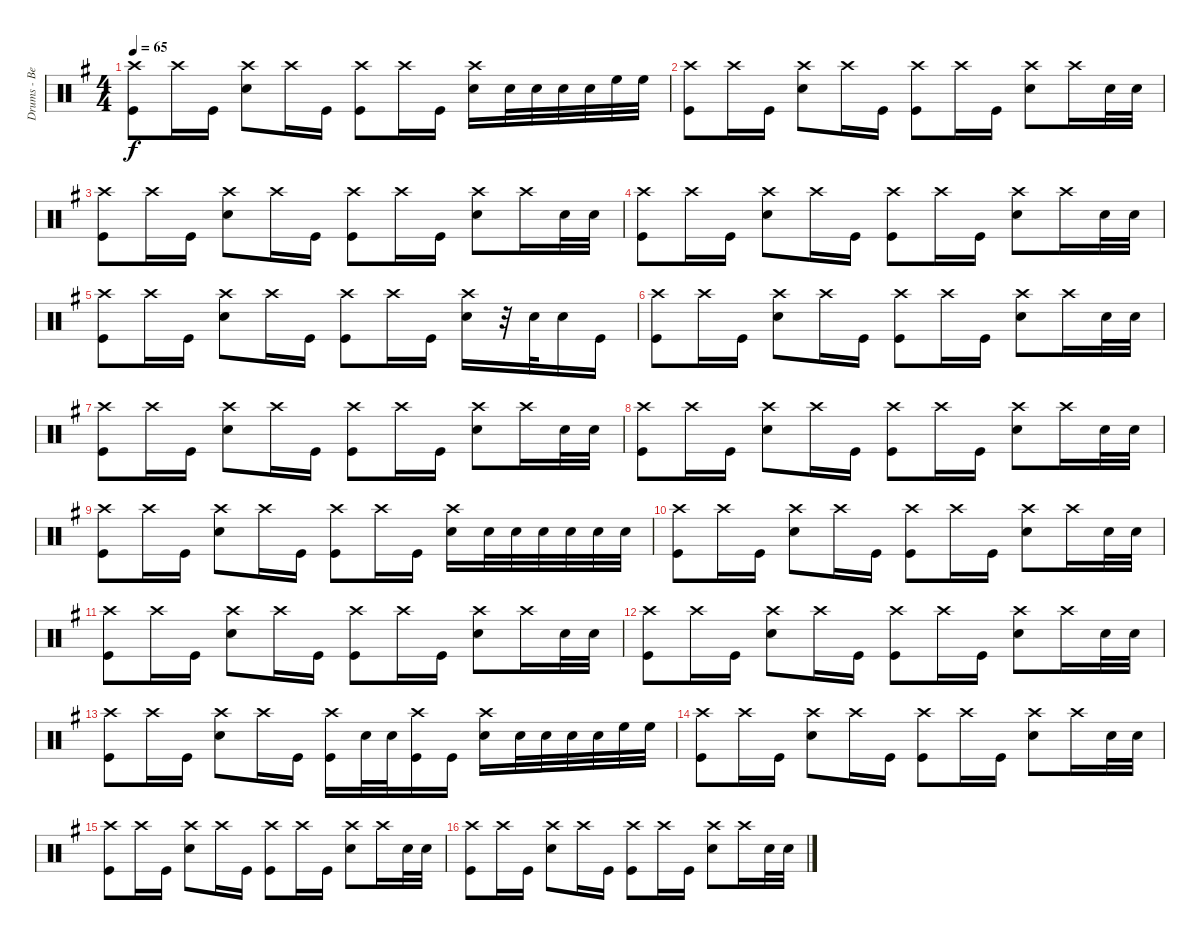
\track ("Drums - Ben Johnston" "Drums - Be") {instrument percussion}
\staff {score}
\articulation defaults
\ts (4 4)
\tempo 65
\clef neutral
\ks g
("Crash high (hit)" "Kick (hit)").8{dy f} "Crash high (hit)".16 "Kick (hit)".16 ("Crash high (hit)" "Snare (hit) 2").8 "Crash high (hit)".16 "Kick (hit)".16 ("Crash high (hit)" "Kick (hit)").8 "Crash high (hit)".16 "Kick (hit)".16 ("Crash high (hit)" "Snare (hit) 2").16 "Snare (hit) 2".32 "Snare (hit) 2".32 "Snare (hit) 2".32 "Snare (hit) 2".32 "High Floor Tom (hit)".32 "High Floor Tom (hit)".32 |
("Crash high (hit)" "Kick (hit)").8 "Crash high (hit)".16 "Kick (hit)".16 ("Crash high (hit)" "Snare (hit) 2").8 "Crash high (hit)".16 "Kick (hit)".16 ("Crash high (hit)" "Kick (hit)").8 "Crash high (hit)".16 "Kick (hit)".16 ("Crash high (hit)" "Snare (hit) 2").8 "Crash high (hit)".16 "Snare (hit) 2".32 "Snare (hit) 2".32 |
("Crash high (hit)" "Kick (hit)").8 "Crash high (hit)".16 "Kick (hit)".16 ("Crash high (hit)" "Snare (hit) 2").8 "Crash high (hit)".16 "Kick (hit)".16 ("Crash high (hit)" "Kick (hit)").8 "Crash high (hit)".16 "Kick (hit)".16 ("Crash high (hit)" "Snare (hit) 2").8 "Crash high (hit)".16 "Snare (hit) 2".32 "Snare (hit) 2".32 |
("Crash high (hit)" "Kick (hit)").8 "Crash high (hit)".16 "Kick (hit)".16 ("Crash high (hit)" "Snare (hit) 2").8 "Crash high (hit)".16 "Kick (hit)".16 ("Crash high (hit)" "Kick (hit)").8 "Crash high (hit)".16 "Kick (hit)".16 ("Crash high (hit)" "Snare (hit) 2").8 "Crash high (hit)".16 "Snare (hit) 2".32 "Snare (hit) 2".32 |
("Crash high (hit)" "Kick (hit)").8 "Crash high (hit)".16 "Kick (hit)".16 ("Crash high (hit)" "Snare (hit) 2").8 "Crash high (hit)".16 "Kick (hit)".16 ("Crash high (hit)" "Kick (hit)").8 "Crash high (hit)".16 "Kick (hit)".16 ("Crash high (hit)" "Snare (hit) 2").16 r.32 "Snare (hit) 2".32 "Snare (hit) 2".16 "Kick (hit)".16 |
("Crash high (hit)" "Kick (hit)").8 "Crash high (hit)".16 "Kick (hit)".16 ("Crash high (hit)" "Snare (hit) 2").8 "Crash high (hit)".16 "Kick (hit)".16 ("Crash high (hit)" "Kick (hit)").8 "Crash high (hit)".16 "Kick (hit)".16 ("Crash high (hit)" "Snare (hit) 2").8 "Crash high (hit)".16 "Snare (hit) 2".32 "Snare (hit) 2".32 |
("Crash high (hit)" "Kick (hit)").8 "Crash high (hit)".16 "Kick (hit)".16 ("Crash high (hit)" "Snare (hit) 2").8 "Crash high (hit)".16 "Kick (hit)".16 ("Crash high (hit)" "Kick (hit)").8 "Crash high (hit)".16 "Kick (hit)".16 ("Crash high (hit)" "Snare (hit) 2").8 "Crash high (hit)".16 "Snare (hit) 2".32 "Snare (hit) 2".32 |
("Crash high (hit)" "Kick (hit)").8 "Crash high (hit)".16 "Kick (hit)".16 ("Crash high (hit)" "Snare (hit) 2").8 "Crash high (hit)".16 "Kick (hit)".16 ("Crash high (hit)" "Kick (hit)").8 "Crash high (hit)".16 "Kick (hit)".16 ("Crash high (hit)" "Snare (hit) 2").8 "Crash high (hit)".16 "Snare (hit) 2".32 "Snare (hit) 2".32 |
("Crash high (hit)" "Kick (hit)").8 "Crash high (hit)".16 "Kick (hit)".16 ("Crash high (hit)" "Snare (hit) 2").8 "Crash high (hit)".16 "Kick (hit)".16 ("Crash high (hit)" "Kick (hit)").8 "Crash high (hit)".16 "Kick (hit)".16 ("Crash high (hit)" "Snare (hit) 2").16 "Snare (hit) 2".32 "Snare (hit) 2".32 "Snare (hit) 2".32 "Snare (hit) 2".32 "Snare (hit) 2".32 "Snare (hit) 2".32 |
("Crash high (hit)" "Kick (hit)").8 "Crash high (hit)".16 "Kick (hit)".16 ("Crash high (hit)" "Snare (hit) 2").8 "Crash high (hit)".16 "Kick (hit)".16 ("Crash high (hit)" "Kick (hit)").8 "Crash high (hit)".16 "Kick (hit)".16 ("Crash high (hit)" "Snare (hit) 2").8 "Crash high (hit)".16 "Snare (hit) 2".32 "Snare (hit) 2".32 |
("Crash high (hit)" "Kick (hit)").8 "Crash high (hit)".16 "Kick (hit)".16 ("Crash high (hit)" "Snare (hit) 2").8 "Crash high (hit)".16 "Kick (hit)".16 ("Crash high (hit)" "Kick (hit)").8 "Crash high (hit)".16 "Kick (hit)".16 ("Crash high (hit)" "Snare (hit) 2").8 "Crash high (hit)".16 "Snare (hit) 2".32 "Snare (hit) 2".32 |
("Crash high (hit)" "Kick (hit)").8 "Crash high (hit)".16 "Kick (hit)".16 ("Crash high (hit)" "Snare (hit) 2").8 "Crash high (hit)".16 "Kick (hit)".16 ("Crash high (hit)" "Kick (hit)").8 "Crash high (hit)".16 "Kick (hit)".16 ("Crash high (hit)" "Snare (hit) 2").8 "Crash high (hit)".16 "Snare (hit) 2".32 "Snare (hit) 2".32 |
("Crash high (hit)" "Kick (hit)").8 "Crash high (hit)".16 "Kick (hit)".16 ("Crash high (hit)" "Snare (hit) 2").8 "Crash high (hit)".16 "Kick (hit)".16 ("Crash high (hit)" "Kick (hit)").16 "Snare (hit) 2".32 "Snare (hit) 2".32 ("Crash high (hit)" "Kick (hit)").16 "Kick (hit)".16 ("Crash high (hit)" "Snare (hit) 2").16 "Snare (hit) 2".32 "Snare (hit) 2".32 "Snare (hit) 2".32 "Snare (hit) 2".32 "High Floor Tom (hit)".32 "High Floor Tom (hit)".32 |
("Crash high (hit)" "Kick (hit)").8 "Crash high (hit)".16 "Kick (hit)".16 ("Crash high (hit)" "Snare (hit) 2").8 "Crash high (hit)".16 "Kick (hit)".16 ("Crash high (hit)" "Kick (hit)").8 "Crash high (hit)".16 "Kick (hit)".16 ("Crash high (hit)" "Snare (hit) 2").8 "Crash high (hit)".16 "Snare (hit) 2".32 "Snare (hit) 2".32 |
("Crash high (hit)" "Kick (hit)").8 "Crash high (hit)".16 "Kick (hit)".16 ("Crash high (hit)" "Snare (hit) 2").8 "Crash high (hit)".16 "Kick (hit)".16 ("Crash high (hit)" "Kick (hit)").8 "Crash high (hit)".16 "Kick (hit)".16 ("Crash high (hit)" "Snare (hit) 2").8 "Crash high (hit)".16 "Snare (hit) 2".32 "Snare (hit) 2".32 |
("Crash high (hit)" "Kick (hit)").8 "Crash high (hit)".16 "Kick (hit)".16 ("Crash high (hit)" "Snare (hit) 2").8 "Crash high (hit)".16 "Kick (hit)".16 ("Crash high (hit)" "Kick (hit)").8 "Crash high (hit)".16 "Kick (hit)".16 ("Crash high (hit)" "Snare (hit) 2").8 "Crash high (hit)".16 "Snare (hit) 2".32 "Snare (hit) 2".32
